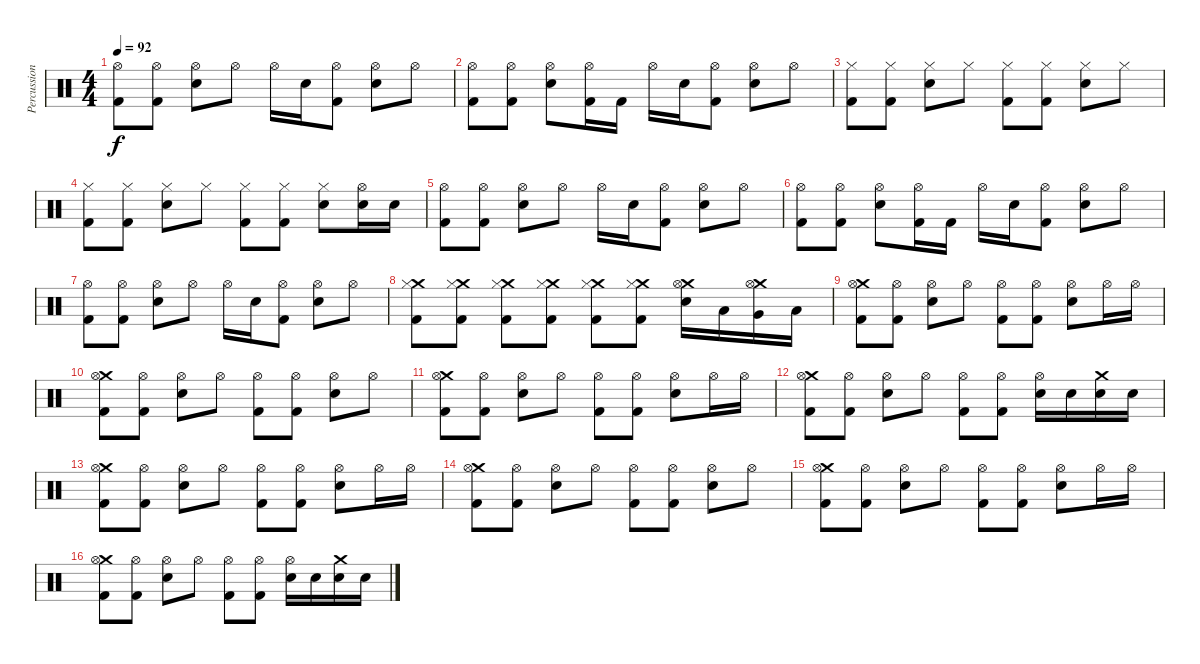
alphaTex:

\track ("Percussion" "Percussion") {instrument percussion}
\staff {score}
\articulation defaults
\ts (4 4)
\tempo 92
\clef neutral
\ks c
("Hi-Hat (open)" "Kick (hit) 2").8{dy f} ("Hi-Hat (open)" "Kick (hit) 2").8 ("Hi-Hat (open)" "Electric Snare (hit)").8 "Hi-Hat (open)".8 "Hi-Hat (open)".16 "Electric Snare (hit)".16 ("Hi-Hat (open)" "Kick (hit) 2").8 ("Hi-Hat (open)" "Electric Snare (hit)").8 "Hi-Hat (open)".8 |
("Hi-Hat (open)" "Kick (hit) 2").8 ("Hi-Hat (open)" "Kick (hit) 2").8 ("Hi-Hat (open)" "Electric Snare (hit)").8 ("Hi-Hat (open)" "Kick (hit) 2").16 "Kick (hit) 2".16 "Hi-Hat (open)".16 "Electric Snare (hit)".16 ("Hi-Hat (open)" "Kick (hit) 2").8 ("Hi-Hat (open)" "Electric Snare (hit)").8 "Hi-Hat (open)".8 |
("Hi-Hat (closed)" "Kick (hit) 2").8 ("Hi-Hat (closed)" "Kick (hit) 2").8 ("Hi-Hat (closed)" "Electric Snare (hit)").8 "Hi-Hat (closed)".8 ("Hi-Hat (closed)" "Kick (hit) 2").8 ("Hi-Hat (closed)" "Kick (hit) 2").8 ("Hi-Hat (closed)" "Electric Snare (hit)").8 "Hi-Hat (closed)".8 |
("Hi-Hat (closed)" "Kick (hit) 2").8 ("Hi-Hat (closed)" "Kick (hit) 2").8 ("Hi-Hat (closed)" "Electric Snare (hit)").8 "Hi-Hat (closed)".8 ("Hi-Hat (closed)" "Kick (hit) 2").8 ("Hi-Hat (closed)" "Kick (hit) 2").8 ("Hi-Hat (closed)" "Electric Snare (hit)").8 ("Hi-Hat (open)" "Electric Snare (hit)").16 "Electric Snare (hit)".16 |
("Hi-Hat (open)" "Kick (hit) 2").8 ("Hi-Hat (open)" "Kick (hit) 2").8 ("Hi-Hat (open)" "Electric Snare (hit)").8 "Hi-Hat (open)".8 "Hi-Hat (open)".16 "Electric Snare (hit)".16 ("Hi-Hat (open)" "Kick (hit) 2").8 ("Hi-Hat (open)" "Electric Snare (hit)").8 "Hi-Hat (open)".8 |
("Hi-Hat (open)" "Kick (hit) 2").8 ("Hi-Hat (open)" "Kick (hit) 2").8 ("Hi-Hat (open)" "Electric Snare (hit)").8 ("Hi-Hat (open)" "Kick (hit) 2").16 "Kick (hit) 2".16 "Hi-Hat (open)".16 "Electric Snare (hit)".16 ("Hi-Hat (open)" "Kick (hit) 2").8 ("Hi-Hat (open)" "Electric Snare (hit)").8 "Hi-Hat (open)".8 |
("Hi-Hat (open)" "Kick (hit) 2").8 ("Hi-Hat (open)" "Kick (hit) 2").8 ("Hi-Hat (open)" "Electric Snare (hit)").8 "Hi-Hat (open)".8 "Hi-Hat (open)".16 "Electric Snare (hit)".16 ("Hi-Hat (open)" "Kick (hit) 2").8 ("Hi-Hat (open)" "Electric Snare (hit)").8 "Hi-Hat (open)".8 |
("Crash medium (hit)" "Hi-Hat (closed)" "Kick (hit) 2").8 ("Crash medium (hit)" "Hi-Hat (closed)" "Kick (hit) 2").8 ("Crash medium (hit)" "Hi-Hat (closed)" "Kick (hit) 2").8 ("Crash medium (hit)" "Hi-Hat (closed)" "Kick (hit) 2").8 ("Crash medium (hit)" "Hi-Hat (closed)" "Kick (hit) 2").8 ("Crash medium (hit)" "Hi-Hat (closed)" "Kick (hit) 2").8 ("Crash medium (hit)" "Hi-Hat (open)" "Electric Snare (hit)").16 "Low Tom (hit)".16 ("Crash medium (hit)" "Hi-Hat (open)" "Very Low Tom (hit)").16 "Low Floor Tom (hit)".16 |
("Crash medium (hit)" "Hi-Hat (open)" "Kick (hit) 2").8 ("Hi-Hat (open)" "Kick (hit) 2").8 ("Hi-Hat (open)" "Electric Snare (hit)").8 "Hi-Hat (open)".8 ("Hi-Hat (open)" "Kick (hit) 2").8 ("Hi-Hat (open)" "Kick (hit) 2").8 ("Hi-Hat (open)" "Electric Snare (hit)").8 "Hi-Hat (open)".16 "Hi-Hat (open)".16 |
("Crash medium (hit)" "Hi-Hat (open)" "Kick (hit) 2").8 ("Hi-Hat (open)" "Kick (hit) 2").8 ("Hi-Hat (open)" "Electric Snare (hit)").8 "Hi-Hat (open)".8 ("Hi-Hat (open)" "Kick (hit) 2").8 ("Hi-Hat (open)" "Kick (hit) 2").8 ("Hi-Hat (open)" "Electric Snare (hit)").8 "Hi-Hat (open)".8 |
("Crash medium (hit)" "Hi-Hat (open)" "Kick (hit) 2").8 ("Hi-Hat (open)" "Kick (hit) 2").8 ("Hi-Hat (open)" "Electric Snare (hit)").8 "Hi-Hat (open)".8 ("Hi-Hat (open)" "Kick (hit) 2").8 ("Hi-Hat (open)" "Kick (hit) 2").8 ("Hi-Hat (open)" "Electric Snare (hit)").8 "Hi-Hat (open)".16 "Hi-Hat (open)".16 |
("Crash medium (hit)" "Hi-Hat (open)" "Kick (hit) 2").8 ("Hi-Hat (open)" "Kick (hit) 2").8 ("Hi-Hat (open)" "Electric Snare (hit)").8 "Hi-Hat (open)".8 ("Hi-Hat (open)" "Kick (hit) 2").8 ("Hi-Hat (open)" "Kick (hit) 2").8 ("Hi-Hat (open)" "Electric Snare (hit)").16 "Electric Snare (hit)".16 ("Crash medium (hit)" "Electric Snare (hit)").16 "Electric Snare (hit)".16 |
("Crash medium (hit)" "Hi-Hat (open)" "Kick (hit) 2").8 ("Hi-Hat (open)" "Kick (hit) 2").8 ("Hi-Hat (open)" "Electric Snare (hit)").8 "Hi-Hat (open)".8 ("Hi-Hat (open)" "Kick (hit) 2").8 ("Hi-Hat (open)" "Kick (hit) 2").8 ("Hi-Hat (open)" "Electric Snare (hit)").8 "Hi-Hat (open)".16 "Hi-Hat (open)".16 |
("Crash medium (hit)" "Hi-Hat (open)" "Kick (hit) 2").8 ("Hi-Hat (open)" "Kick (hit) 2").8 ("Hi-Hat (open)" "Electric Snare (hit)").8 "Hi-Hat (open)".8 ("Hi-Hat (open)" "Kick (hit) 2").8 ("Hi-Hat (open)" "Kick (hit) 2").8 ("Hi-Hat (open)" "Electric Snare (hit)").8 "Hi-Hat (open)".8 |
("Crash medium (hit)" "Hi-Hat (open)" "Kick (hit) 2").8 ("Hi-Hat (open)" "Kick (hit) 2").8 ("Hi-Hat (open)" "Electric Snare (hit)").8 "Hi-Hat (open)".8 ("Hi-Hat (open)" "Kick (hit) 2").8 ("Hi-Hat (open)" "Kick (hit) 2").8 ("Hi-Hat (open)" "Electric Snare (hit)").8 "Hi-Hat (open)".16 "Hi-Hat (open)".16 |
("Crash medium (hit)" "Hi-Hat (open)" "Kick (hit) 2").8 ("Hi-Hat (open)" "Kick (hit) 2").8 ("Hi-Hat (open)" "Electric Snare (hit)").8 "Hi-Hat (open)".8 ("Hi-Hat (open)" "Kick (hit) 2").8 ("Hi-Hat (open)" "Kick (hit) 2").8 ("Hi-Hat (open)" "Electric Snare (hit)").16 "Electric Snare (hit)".16 ("Crash medium (hit)" "Electric Snare (hit)").16 "Electric Snare (hit)".16
